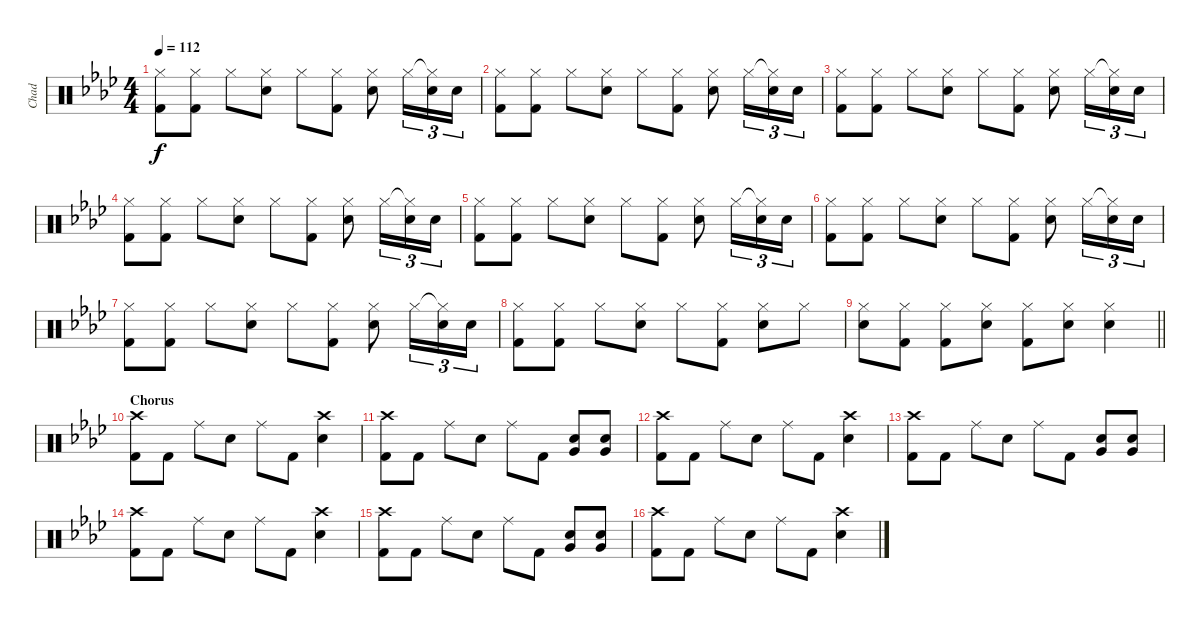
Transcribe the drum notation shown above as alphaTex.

\track ("Chad" "Chad") {instrument percussion}
\staff {score}
\articulation defaults
\ts (4 4)
\tempo 112
\clef neutral
\ks ab
("Hi-Hat (closed)" "Kick (hit) 2").8{dy f} ("Hi-Hat (closed)" "Kick (hit) 2").8 "Hi-Hat (closed)".8 ("Hi-Hat (closed)" "Snare (hit) 2").8 "Hi-Hat (closed)".8 ("Hi-Hat (closed)" "Kick (hit) 2").8 ("Hi-Hat (closed)" "Snare (hit) 2").8 "Hi-Hat (closed)".16{tu (3 2)} ("Hi-Hat (closed)"{t} "Snare (hit) 2").16{tu (3 2)} "Snare (hit) 2".16{tu (3 2)} |
("Hi-Hat (closed)" "Kick (hit) 2").8 ("Hi-Hat (closed)" "Kick (hit) 2").8 "Hi-Hat (closed)".8 ("Hi-Hat (closed)" "Snare (hit) 2").8 "Hi-Hat (closed)".8 ("Hi-Hat (closed)" "Kick (hit) 2").8 ("Hi-Hat (closed)" "Snare (hit) 2").8 "Hi-Hat (closed)".16{tu (3 2)} ("Hi-Hat (closed)"{t} "Snare (hit) 2").16{tu (3 2)} "Snare (hit) 2".16{tu (3 2)} |
("Hi-Hat (closed)" "Kick (hit) 2").8 ("Hi-Hat (closed)" "Kick (hit) 2").8 "Hi-Hat (closed)".8 ("Hi-Hat (closed)" "Snare (hit) 2").8 "Hi-Hat (closed)".8 ("Hi-Hat (closed)" "Kick (hit) 2").8 ("Hi-Hat (closed)" "Snare (hit) 2").8 "Hi-Hat (closed)".16{tu (3 2)} ("Hi-Hat (closed)"{t} "Snare (hit) 2").16{tu (3 2)} "Snare (hit) 2".16{tu (3 2)} |
("Hi-Hat (closed)" "Kick (hit) 2").8 ("Hi-Hat (closed)" "Kick (hit) 2").8 "Hi-Hat (closed)".8 ("Hi-Hat (closed)" "Snare (hit) 2").8 "Hi-Hat (closed)".8 ("Hi-Hat (closed)" "Kick (hit) 2").8 ("Hi-Hat (closed)" "Snare (hit) 2").8 "Hi-Hat (closed)".16{tu (3 2)} ("Hi-Hat (closed)"{t} "Snare (hit) 2").16{tu (3 2)} "Snare (hit) 2".16{tu (3 2)} |
("Hi-Hat (closed)" "Kick (hit) 2").8 ("Hi-Hat (closed)" "Kick (hit) 2").8 "Hi-Hat (closed)".8 ("Hi-Hat (closed)" "Snare (hit) 2").8 "Hi-Hat (closed)".8 ("Hi-Hat (closed)" "Kick (hit) 2").8 ("Hi-Hat (closed)" "Snare (hit) 2").8 "Hi-Hat (closed)".16{tu (3 2)} ("Hi-Hat (closed)"{t} "Snare (hit) 2").16{tu (3 2)} "Snare (hit) 2".16{tu (3 2)} |
("Hi-Hat (closed)" "Kick (hit) 2").8 ("Hi-Hat (closed)" "Kick (hit) 2").8 "Hi-Hat (closed)".8 ("Hi-Hat (closed)" "Snare (hit) 2").8 "Hi-Hat (closed)".8 ("Hi-Hat (closed)" "Kick (hit) 2").8 ("Hi-Hat (closed)" "Snare (hit) 2").8 "Hi-Hat (closed)".16{tu (3 2)} ("Hi-Hat (closed)"{t} "Snare (hit) 2").16{tu (3 2)} "Snare (hit) 2".16{tu (3 2)} |
("Hi-Hat (closed)" "Kick (hit) 2").8 ("Hi-Hat (closed)" "Kick (hit) 2").8 "Hi-Hat (closed)".8 ("Hi-Hat (closed)" "Snare (hit) 2").8 "Hi-Hat (closed)".8 ("Hi-Hat (closed)" "Kick (hit) 2").8 ("Hi-Hat (closed)" "Snare (hit) 2").8 "Hi-Hat (closed)".16{tu (3 2)} ("Hi-Hat (closed)"{t} "Snare (hit) 2").16{tu (3 2)} "Snare (hit) 2".16{tu (3 2)} |
("Hi-Hat (closed)" "Kick (hit) 2").8 ("Hi-Hat (closed)" "Kick (hit) 2").8 "Hi-Hat (closed)".8 ("Hi-Hat (closed)" "Snare (hit) 2").8 "Hi-Hat (closed)".8 ("Hi-Hat (closed)" "Kick (hit) 2").8 ("Hi-Hat (closed)" "Snare (hit) 2").8 "Hi-Hat (closed)".8 |
\barLineRight lightlight
("Hi-Hat (closed)" "Snare (hit) 2").8 ("Hi-Hat (closed)" "Kick (hit) 2").8 ("Hi-Hat (closed)" "Kick (hit) 2").8 ("Hi-Hat (closed)" "Snare (hit) 2").8 ("Hi-Hat (closed)" "Kick (hit) 2").8 ("Hi-Hat (closed)" "Snare (hit) 2").8 ("Hi-Hat (closed)" "Snare (hit) 2").4 |
\section ("" "Chorus")
("Crash high (hit)" "Kick (hit) 2").8 "Kick (hit) 2".8 "Ride (middle)".8 "Snare (hit) 2".8 "Ride (middle)".8 "Kick (hit) 2".8 ("Crash high (hit)" "Snare (hit) 2").4 |
("Crash high (hit)" "Kick (hit) 2").8 "Kick (hit) 2".8 "Ride (middle)".8 "Snare (hit) 2".8 "Ride (middle)".8 "Kick (hit) 2".8 ("Snare (hit) 2" "Very Low Tom (hit)").8 ("Snare (hit) 2" "Very Low Tom (hit)").8 |
("Crash high (hit)" "Kick (hit) 2").8 "Kick (hit) 2".8 "Ride (middle)".8 "Snare (hit) 2".8 "Ride (middle)".8 "Kick (hit) 2".8 ("Crash high (hit)" "Snare (hit) 2").4 |
("Crash high (hit)" "Kick (hit) 2").8 "Kick (hit) 2".8 "Ride (middle)".8 "Snare (hit) 2".8 "Ride (middle)".8 "Kick (hit) 2".8 ("Snare (hit) 2" "Very Low Tom (hit)").8 ("Snare (hit) 2" "Very Low Tom (hit)").8 |
("Crash high (hit)" "Kick (hit) 2").8 "Kick (hit) 2".8 "Ride (middle)".8 "Snare (hit) 2".8 "Ride (middle)".8 "Kick (hit) 2".8 ("Crash high (hit)" "Snare (hit) 2").4 |
("Crash high (hit)" "Kick (hit) 2").8 "Kick (hit) 2".8 "Ride (middle)".8 "Snare (hit) 2".8 "Ride (middle)".8 "Kick (hit) 2".8 ("Snare (hit) 2" "Very Low Tom (hit)").8 ("Snare (hit) 2" "Very Low Tom (hit)").8 |
("Crash high (hit)" "Kick (hit) 2").8 "Kick (hit) 2".8 "Ride (middle)".8 "Snare (hit) 2".8 "Ride (middle)".8 "Kick (hit) 2".8 ("Crash high (hit)" "Snare (hit) 2").4
